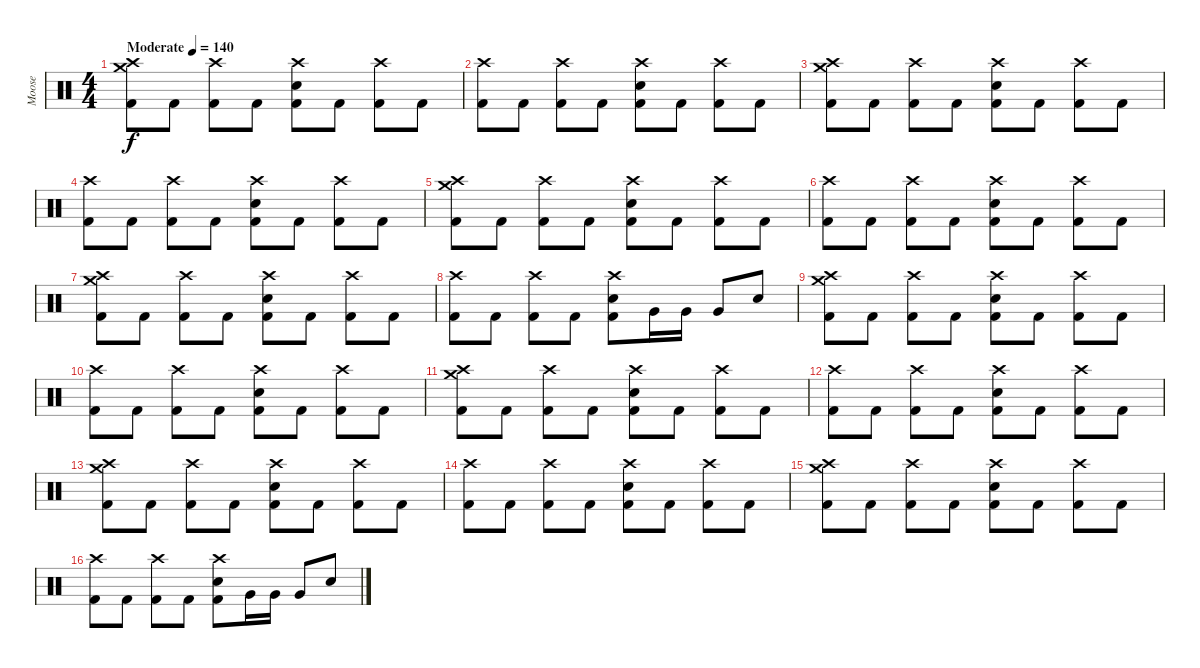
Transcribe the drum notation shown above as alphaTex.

\track ("Moose" "Moose") {instrument percussion}
\staff {score}
\articulation defaults
\ts (4 4)
\tempo (140 "Moderate")
\clef neutral
\ks c
("Crash high (hit)" "Crash medium (hit)" "Kick (hit) 2").8{dy f} "Kick (hit) 2".8 ("Crash high (hit)" "Kick (hit) 2").8 "Kick (hit) 2".8 ("Crash high (hit)" "Snare (hit) 2" "Kick (hit) 2").8 "Kick (hit) 2".8 ("Crash high (hit)" "Kick (hit) 2").8 "Kick (hit) 2".8 |
("Crash high (hit)" "Kick (hit) 2").8 "Kick (hit) 2".8 ("Crash high (hit)" "Kick (hit) 2").8 "Kick (hit) 2".8 ("Crash high (hit)" "Snare (hit) 2" "Kick (hit) 2").8 "Kick (hit) 2".8 ("Crash high (hit)" "Kick (hit) 2").8 "Kick (hit) 2".8 |
("Crash high (hit)" "Crash medium (hit)" "Kick (hit) 2").8 "Kick (hit) 2".8 ("Crash high (hit)" "Kick (hit) 2").8 "Kick (hit) 2".8 ("Crash high (hit)" "Snare (hit) 2" "Kick (hit) 2").8 "Kick (hit) 2".8 ("Crash high (hit)" "Kick (hit) 2").8 "Kick (hit) 2".8 |
("Crash high (hit)" "Kick (hit) 2").8 "Kick (hit) 2".8 ("Crash high (hit)" "Kick (hit) 2").8 "Kick (hit) 2".8 ("Crash high (hit)" "Snare (hit) 2" "Kick (hit) 2").8 "Kick (hit) 2".8 ("Crash high (hit)" "Kick (hit) 2").8 "Kick (hit) 2".8 |
("Crash high (hit)" "Crash medium (hit)" "Kick (hit) 2").8 "Kick (hit) 2".8 ("Crash high (hit)" "Kick (hit) 2").8 "Kick (hit) 2".8 ("Crash high (hit)" "Snare (hit) 2" "Kick (hit) 2").8 "Kick (hit) 2".8 ("Crash high (hit)" "Kick (hit) 2").8 "Kick (hit) 2".8 |
("Crash high (hit)" "Kick (hit) 2").8 "Kick (hit) 2".8 ("Crash high (hit)" "Kick (hit) 2").8 "Kick (hit) 2".8 ("Crash high (hit)" "Snare (hit) 2" "Kick (hit) 2").8 "Kick (hit) 2".8 ("Crash high (hit)" "Kick (hit) 2").8 "Kick (hit) 2".8 |
("Crash high (hit)" "Crash medium (hit)" "Kick (hit) 2").8 "Kick (hit) 2".8 ("Crash high (hit)" "Kick (hit) 2").8 "Kick (hit) 2".8 ("Crash high (hit)" "Snare (hit) 2" "Kick (hit) 2").8 "Kick (hit) 2".8 ("Crash high (hit)" "Kick (hit) 2").8 "Kick (hit) 2".8 |
("Crash high (hit)" "Kick (hit) 2").8 "Kick (hit) 2".8 ("Crash high (hit)" "Kick (hit) 2").8 "Kick (hit) 2".8 ("Crash high (hit)" "Snare (hit) 2" "Kick (hit) 2").8 "Very Low Tom (hit)".16 "Very Low Tom (hit)".16 "Very Low Tom (hit)".8 "Snare (hit) 2".8 |
("Crash high (hit)" "Crash medium (hit)" "Kick (hit) 2").8 "Kick (hit) 2".8 ("Crash high (hit)" "Kick (hit) 2").8 "Kick (hit) 2".8 ("Crash high (hit)" "Snare (hit) 2" "Kick (hit) 2").8 "Kick (hit) 2".8 ("Crash high (hit)" "Kick (hit) 2").8 "Kick (hit) 2".8 |
("Crash high (hit)" "Kick (hit) 2").8 "Kick (hit) 2".8 ("Crash high (hit)" "Kick (hit) 2").8 "Kick (hit) 2".8 ("Crash high (hit)" "Snare (hit) 2" "Kick (hit) 2").8 "Kick (hit) 2".8 ("Crash high (hit)" "Kick (hit) 2").8 "Kick (hit) 2".8 |
("Crash high (hit)" "Crash medium (hit)" "Kick (hit) 2").8 "Kick (hit) 2".8 ("Crash high (hit)" "Kick (hit) 2").8 "Kick (hit) 2".8 ("Crash high (hit)" "Snare (hit) 2" "Kick (hit) 2").8 "Kick (hit) 2".8 ("Crash high (hit)" "Kick (hit) 2").8 "Kick (hit) 2".8 |
("Crash high (hit)" "Kick (hit) 2").8 "Kick (hit) 2".8 ("Crash high (hit)" "Kick (hit) 2").8 "Kick (hit) 2".8 ("Crash high (hit)" "Snare (hit) 2" "Kick (hit) 2").8 "Kick (hit) 2".8 ("Crash high (hit)" "Kick (hit) 2").8 "Kick (hit) 2".8 |
("Crash high (hit)" "Crash medium (hit)" "Kick (hit) 2").8 "Kick (hit) 2".8 ("Crash high (hit)" "Kick (hit) 2").8 "Kick (hit) 2".8 ("Crash high (hit)" "Snare (hit) 2" "Kick (hit) 2").8 "Kick (hit) 2".8 ("Crash high (hit)" "Kick (hit) 2").8 "Kick (hit) 2".8 |
("Crash high (hit)" "Kick (hit) 2").8 "Kick (hit) 2".8 ("Crash high (hit)" "Kick (hit) 2").8 "Kick (hit) 2".8 ("Crash high (hit)" "Snare (hit) 2" "Kick (hit) 2").8 "Kick (hit) 2".8 ("Crash high (hit)" "Kick (hit) 2").8 "Kick (hit) 2".8 |
("Crash high (hit)" "Crash medium (hit)" "Kick (hit) 2").8 "Kick (hit) 2".8 ("Crash high (hit)" "Kick (hit) 2").8 "Kick (hit) 2".8 ("Crash high (hit)" "Snare (hit) 2" "Kick (hit) 2").8 "Kick (hit) 2".8 ("Crash high (hit)" "Kick (hit) 2").8 "Kick (hit) 2".8 |
("Crash high (hit)" "Kick (hit) 2").8 "Kick (hit) 2".8 ("Crash high (hit)" "Kick (hit) 2").8 "Kick (hit) 2".8 ("Crash high (hit)" "Snare (hit) 2" "Kick (hit) 2").8 "Very Low Tom (hit)".16 "Very Low Tom (hit)".16 "Very Low Tom (hit)".8 "Snare (hit) 2".8
